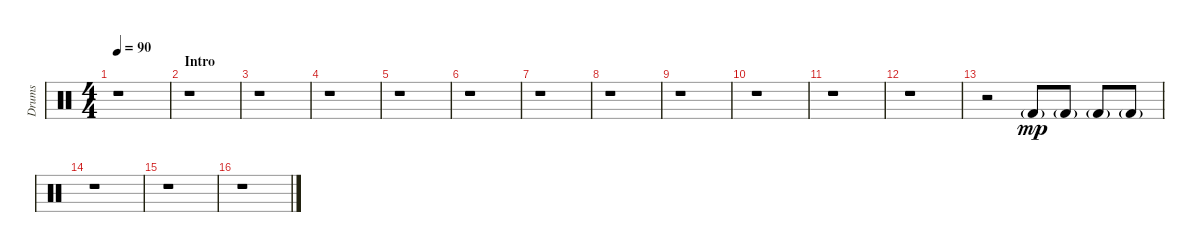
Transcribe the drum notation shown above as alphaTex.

\track ("Drums" "Drums") {instrument percussion}
\staff {score}
\articulation defaults
\ts (4 4)
\tempo 90
\clef neutral
\ks c
r.1{dy mp} |
\section ("" "Intro")
r.1 |
r.1 |
r.1 |
r.1 |
r.1 |
r.1 |
r.1 |
r.1 |
r.1 |
r.1 |
r.1 |
r.2 "Kick (hit) 2"{g}.8 "Kick (hit) 2"{g}.8 "Kick (hit) 2"{g}.8 "Kick (hit) 2"{g}.8 |
r.1 |
r.1 |
r.1
